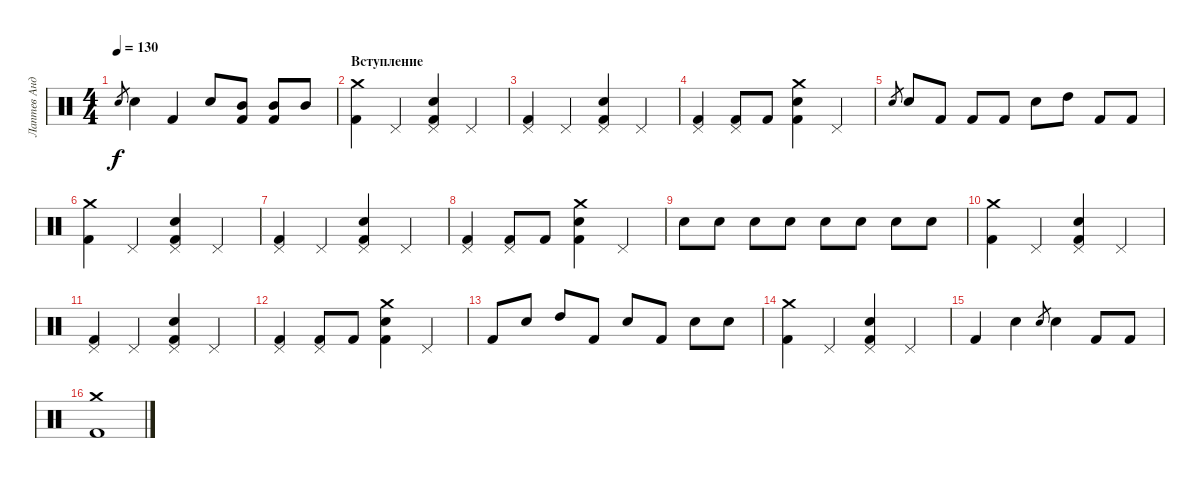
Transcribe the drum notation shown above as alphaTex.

\track ("Лаптев Андрей" "Лаптев Анд") {instrument percussion}
\staff {score}
\articulation defaults
\ts (4 4)
\tempo 130
\clef neutral
\ks c "Electric Snare (hit)".8{gr dy f} "Electric Snare (hit)".4 "Kick (hit) 2".4 "Electric Snare (hit)".8
("Mid Tom (hit)" "Kick (hit) 2").8 ("Mid Tom (hit)" "Kick (hit) 2").8 "Mid Tom (hit)".8 |
\section ("" "Вступление")
("Crash medium (hit)" "Kick (hit) 2").4 "Pedal Hi-Hat (hit)".4 ("Pedal Hi-Hat (hit)" "Electric Snare (hit)" "Kick (hit) 2").4 "Pedal Hi-Hat (hit)".4 |
("Kick (hit) 2" "Pedal Hi-Hat (hit)").4 "Pedal Hi-Hat (hit)".4 ("Pedal Hi-Hat (hit)" "Electric Snare (hit)" "Kick (hit) 2").4 "Pedal Hi-Hat (hit)".4 |
("Kick (hit) 2" "Pedal Hi-Hat (hit)").4 ("Pedal Hi-Hat (hit)" "Kick (hit) 2").8 "Kick (hit) 2".8 ("Crash medium (hit)" "Electric Snare (hit)" "Kick (hit) 2").4 "Pedal Hi-Hat (hit)".4 |
"Electric Snare (hit)".8{gr} "Electric Snare (hit)".8 "Kick (hit) 2".8 "Kick (hit) 2".8 "Kick (hit) 2".8 "Electric Snare (hit)".8 "High Tom (hit)".8 "Kick (hit) 2".8 "Kick (hit) 2".8 |
("Crash medium (hit)" "Kick (hit) 2").4 "Pedal Hi-Hat (hit)".4 ("Pedal Hi-Hat (hit)" "Electric Snare (hit)" "Kick (hit) 2").4 "Pedal Hi-Hat (hit)".4 |
("Kick (hit) 2" "Pedal Hi-Hat (hit)").4 "Pedal Hi-Hat (hit)".4 ("Pedal Hi-Hat (hit)" "Electric Snare (hit)" "Kick (hit) 2").4 "Pedal Hi-Hat (hit)".4 |
("Kick (hit) 2" "Pedal Hi-Hat (hit)").4 ("Pedal Hi-Hat (hit)" "Kick (hit) 2").8 "Kick (hit) 2".8 ("Crash medium (hit)" "Electric Snare (hit)" "Kick (hit) 2").4 "Pedal Hi-Hat (hit)".4 |
"Electric Snare (hit)".8 "Electric Snare (hit)".8 "Electric Snare (hit)".8 "Electric Snare (hit)".8 "Electric Snare (hit)".8 "Electric Snare (hit)".8 "Electric Snare (hit)".8 "Electric Snare (hit)".8 |
("Crash medium (hit)" "Kick (hit) 2").4 "Pedal Hi-Hat (hit)".4 ("Pedal Hi-Hat (hit)" "Electric Snare (hit)" "Kick (hit) 2").4 "Pedal Hi-Hat (hit)".4 |
("Kick (hit) 2" "Pedal Hi-Hat (hit)").4 "Pedal Hi-Hat (hit)".4 ("Pedal Hi-Hat (hit)" "Electric Snare (hit)" "Kick (hit) 2").4 "Pedal Hi-Hat (hit)".4 |
("Kick (hit) 2" "Pedal Hi-Hat (hit)").4 ("Pedal Hi-Hat (hit)" "Kick (hit) 2").8 "Kick (hit) 2".8 ("Crash medium (hit)" "Electric Snare (hit)" "Kick (hit) 2").4 "Pedal Hi-Hat (hit)".4 |
"Kick (hit) 2".8 "Electric Snare (hit)".8 "High Tom (hit)".8 "Kick (hit) 2".8 "Electric Snare (hit)".8 "Kick (hit) 2".8 "Electric Snare (hit)".8 "Electric Snare (hit)".8 |
("Crash medium (hit)" "Kick (hit) 2").4 "Pedal Hi-Hat (hit)".4 ("Pedal Hi-Hat (hit)" "Electric Snare (hit)" "Kick (hit) 2").4 "Pedal Hi-Hat (hit)".4 |
"Kick (hit) 2".4 "Electric Snare (hit)".4 "Electric Snare (hit)".8{gr} "Electric Snare (hit)".4 "Kick (hit) 2".8 "Kick (hit) 2".8 |
("Crash medium (hit)" "Kick (hit) 2").1
